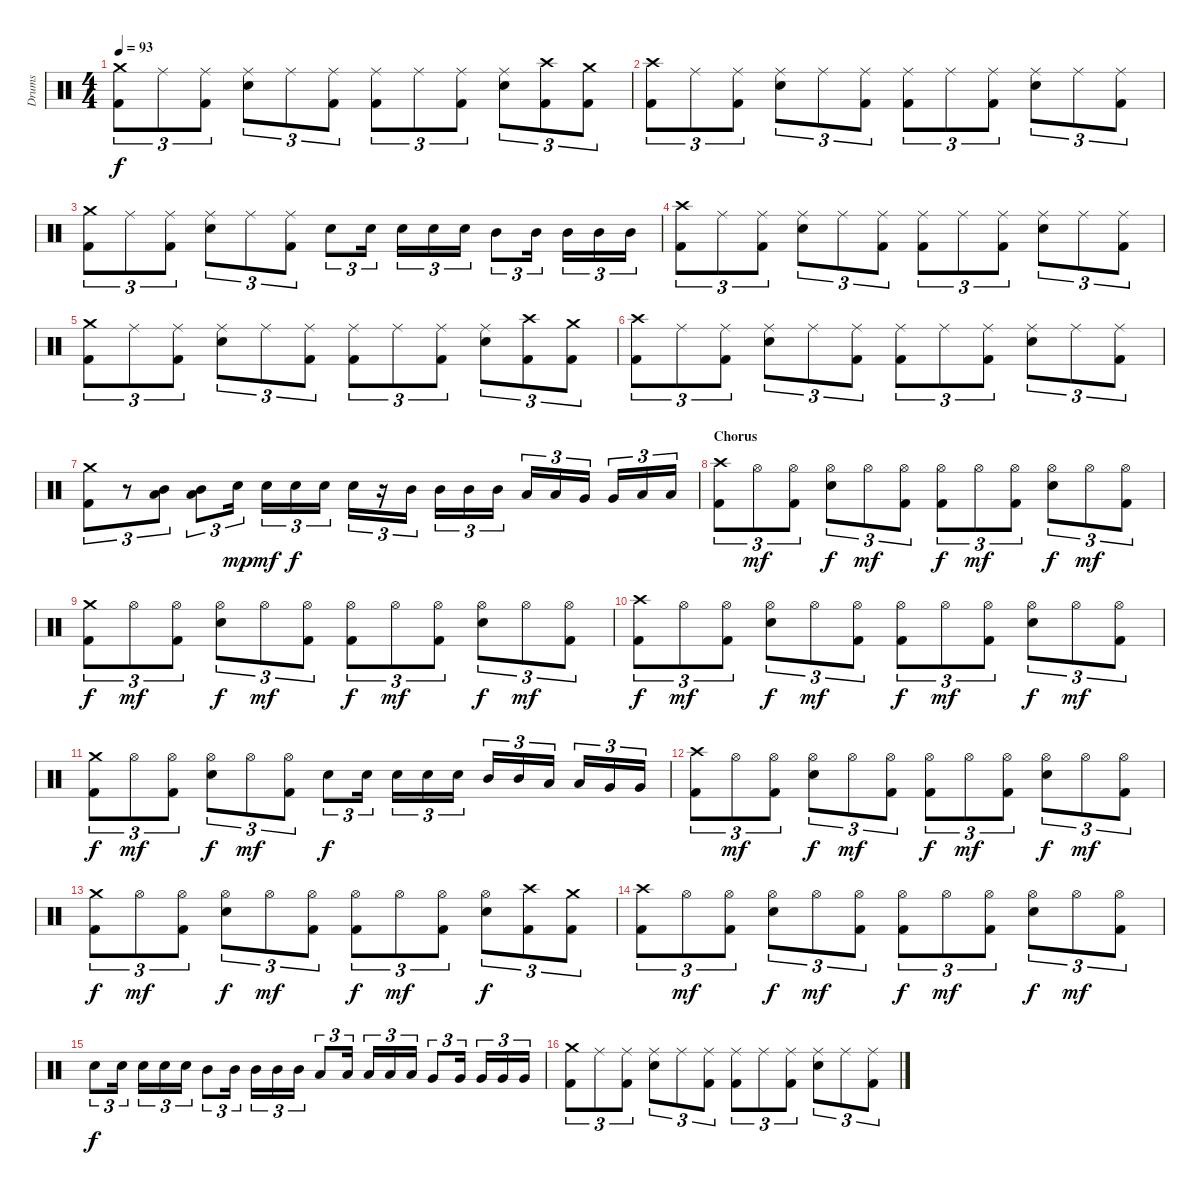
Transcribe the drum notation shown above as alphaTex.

\track ("Drums" "Drums") {instrument percussion}
\staff {score}
\articulation defaults
\ts (4 4)
\tempo 93
\clef neutral
\ks c
("Crash medium (hit)" "Kick (hit) 2").8{tu (3 2) dy f} "Ride (middle)".8{tu (3 2)} ("Ride (middle)" "Kick (hit) 2").8{tu (3 2)} ("Ride (middle)" "Snare (hit) 2").8{tu (3 2)} "Ride (middle)".8{tu (3 2)} ("Ride (middle)" "Kick (hit) 2").8{tu (3 2)} ("Ride (middle)" "Kick (hit) 2").8{tu (3 2)} "Ride (middle)".8{tu (3 2)} ("Ride (middle)" "Kick (hit) 2").8{tu (3 2)} ("Ride (middle)" "Snare (hit) 2").8{tu (3 2)} ("Crash high (hit)" "Kick (hit) 2").8{tu (3 2)} ("Crash medium (hit)" "Kick (hit) 2").8{tu (3 2)} |
("Crash high (hit)" "Kick (hit) 2").8{tu (3 2)} "Ride (middle)".8{tu (3 2)} ("Ride (middle)" "Kick (hit) 2").8{tu (3 2)} ("Ride (middle)" "Snare (hit) 2").8{tu (3 2)} "Ride (middle)".8{tu (3 2)} ("Ride (middle)" "Kick (hit) 2").8{tu (3 2)} ("Ride (middle)" "Kick (hit) 2").8{tu (3 2)} "Ride (middle)".8{tu (3 2)} ("Ride (middle)" "Kick (hit) 2").8{tu (3 2)} ("Ride (middle)" "Snare (hit) 2").8{tu (3 2)} "Ride (middle)".8{tu (3 2)} ("Ride (middle)" "Kick (hit) 2").8{tu (3 2)} |
("Crash medium (hit)" "Kick (hit) 2").8{tu (3 2)} "Ride (middle)".8{tu (3 2)} ("Ride (middle)" "Kick (hit) 2").8{tu (3 2)} ("Ride (middle)" "Snare (hit) 2").8{tu (3 2)} "Ride (middle)".8{tu (3 2)} ("Ride (middle)" "Kick (hit) 2").8{tu (3 2)} "Snare (hit) 2".8{tu (3 2)} "Snare (hit) 2".16{tu (3 2)} "Snare (hit) 2".16{tu (3 2)} "Snare (hit) 2".16{tu (3 2)} "Snare (hit) 2".16{tu (3 2)} "Mid Tom (hit)".8{tu (3 2)} "Mid Tom (hit)".16{tu (3 2)} "Mid Tom (hit)".16{tu (3 2)} "Mid Tom (hit)".16{tu (3 2)} "Mid Tom (hit)".16{tu (3 2)} |
("Crash high (hit)" "Kick (hit) 2").8{tu (3 2)} "Ride (middle)".8{tu (3 2)} ("Ride (middle)" "Kick (hit) 2").8{tu (3 2)} ("Ride (middle)" "Snare (hit) 2").8{tu (3 2)} "Ride (middle)".8{tu (3 2)} ("Ride (middle)" "Kick (hit) 2").8{tu (3 2)} ("Ride (middle)" "Kick (hit) 2").8{tu (3 2)} "Ride (middle)".8{tu (3 2)} ("Ride (middle)" "Kick (hit) 2").8{tu (3 2)} ("Ride (middle)" "Snare (hit) 2").8{tu (3 2)} "Ride (middle)".8{tu (3 2)} ("Ride (middle)" "Kick (hit) 2").8{tu (3 2)} |
("Crash medium (hit)" "Kick (hit) 2").8{tu (3 2)} "Ride (middle)".8{tu (3 2)} ("Ride (middle)" "Kick (hit) 2").8{tu (3 2)} ("Ride (middle)" "Snare (hit) 2").8{tu (3 2)} "Ride (middle)".8{tu (3 2)} ("Ride (middle)" "Kick (hit) 2").8{tu (3 2)} ("Ride (middle)" "Kick (hit) 2").8{tu (3 2)} "Ride (middle)".8{tu (3 2)} ("Ride (middle)" "Kick (hit) 2").8{tu (3 2)} ("Ride (middle)" "Snare (hit) 2").8{tu (3 2)} ("Crash high (hit)" "Kick (hit) 2").8{tu (3 2)} ("Crash medium (hit)" "Kick (hit) 2").8{tu (3 2)} |
("Crash high (hit)" "Kick (hit) 2").8{tu (3 2)} "Ride (middle)".8{tu (3 2)} ("Ride (middle)" "Kick (hit) 2").8{tu (3 2)} ("Ride (middle)" "Snare (hit) 2").8{tu (3 2)} "Ride (middle)".8{tu (3 2)} ("Ride (middle)" "Kick (hit) 2").8{tu (3 2)} ("Ride (middle)" "Kick (hit) 2").8{tu (3 2)} "Ride (middle)".8{tu (3 2)} ("Ride (middle)" "Kick (hit) 2").8{tu (3 2)} ("Ride (middle)" "Snare (hit) 2").8{tu (3 2)} "Ride (middle)".8{tu (3 2)} ("Ride (middle)" "Kick (hit) 2").8{tu (3 2)} |
("Crash medium (hit)" "Kick (hit) 2").8{tu (3 2)} r.8{tu (3 2)} ("Mid Tom (hit)" "Low Tom (hit)").8{tu (3 2)} ("Mid Tom (hit)" "Low Tom (hit)").8{tu (3 2)} "Snare (hit) 2".16{tu (3 2) dy mp} "Snare (hit) 2".16{tu (3 2) dy mf} "Snare (hit) 2".16{tu (3 2) dy f} "Snare (hit) 2".16{tu (3 2)} "Snare (hit) 2".16{tu (3 2)} r.16{tu (3 2)} "Mid Tom (hit)".16{tu (3 2)} "Mid Tom (hit)".16{tu (3 2)} "Mid Tom (hit)".16{tu (3 2)} "Mid Tom (hit)".16{tu (3 2)} "Low Tom (hit)".16{tu (3 2)} "Low Tom (hit)".16{tu (3 2)} "Very Low Tom (hit)".16{tu (3 2)} "Very Low Tom (hit)".16{tu (3 2)} "Low Floor Tom (hit)".16{tu (3 2)} "Low Floor Tom (hit)".16{tu (3 2)} |
\section ("" "Chorus")
("Crash high (hit)" "Kick (hit) 2").8{tu (3 2)} "Hi-Hat (open)".8{tu (3 2) dy mf} ("Hi-Hat (open)" "Kick (hit) 2").8{tu (3 2)} ("Hi-Hat (open)" "Snare (hit) 2").8{tu (3 2) dy f} "Hi-Hat (open)".8{tu (3 2) dy mf} ("Hi-Hat (open)" "Kick (hit) 2").8{tu (3 2)} ("Hi-Hat (open)" "Kick (hit) 2").8{tu (3 2) dy f} "Hi-Hat (open)".8{tu (3 2) dy mf} ("Hi-Hat (open)" "Kick (hit) 2").8{tu (3 2)} ("Hi-Hat (open)" "Snare (hit) 2").8{tu (3 2) dy f} "Hi-Hat (open)".8{tu (3 2) dy mf} ("Hi-Hat (open)" "Kick (hit) 2").8{tu (3 2)} |
("Crash medium (hit)" "Kick (hit) 2").8{tu (3 2) dy f} "Hi-Hat (open)".8{tu (3 2) dy mf} ("Hi-Hat (open)" "Kick (hit) 2").8{tu (3 2)} ("Hi-Hat (open)" "Snare (hit) 2").8{tu (3 2) dy f} "Hi-Hat (open)".8{tu (3 2) dy mf} ("Hi-Hat (open)" "Kick (hit) 2").8{tu (3 2)} ("Hi-Hat (open)" "Kick (hit) 2").8{tu (3 2) dy f} "Hi-Hat (open)".8{tu (3 2) dy mf} ("Hi-Hat (open)" "Kick (hit) 2").8{tu (3 2)} ("Hi-Hat (open)" "Snare (hit) 2").8{tu (3 2) dy f} "Hi-Hat (open)".8{tu (3 2) dy mf} ("Hi-Hat (open)" "Kick (hit) 2").8{tu (3 2)} |
("Crash high (hit)" "Kick (hit) 2").8{tu (3 2) dy f} "Hi-Hat (open)".8{tu (3 2) dy mf} ("Hi-Hat (open)" "Kick (hit) 2").8{tu (3 2)} ("Hi-Hat (open)" "Snare (hit) 2").8{tu (3 2) dy f} "Hi-Hat (open)".8{tu (3 2) dy mf} ("Hi-Hat (open)" "Kick (hit) 2").8{tu (3 2)} ("Hi-Hat (open)" "Kick (hit) 2").8{tu (3 2) dy f} "Hi-Hat (open)".8{tu (3 2) dy mf} ("Hi-Hat (open)" "Kick (hit) 2").8{tu (3 2)} ("Hi-Hat (open)" "Snare (hit) 2").8{tu (3 2) dy f} "Hi-Hat (open)".8{tu (3 2) dy mf} ("Hi-Hat (open)" "Kick (hit) 2").8{tu (3 2)} |
("Crash medium (hit)" "Kick (hit) 2").8{tu (3 2) dy f} "Hi-Hat (open)".8{tu (3 2) dy mf} ("Hi-Hat (open)" "Kick (hit) 2").8{tu (3 2)} ("Hi-Hat (open)" "Snare (hit) 2").8{tu (3 2) dy f} "Hi-Hat (open)".8{tu (3 2) dy mf} ("Hi-Hat (open)" "Kick (hit) 2").8{tu (3 2)} "Snare (hit) 2".8{tu (3 2) dy f} "Snare (hit) 2".16{tu (3 2)} "Snare (hit) 2".16{tu (3 2)} "Snare (hit) 2".16{tu (3 2)} "Snare (hit) 2".16{tu (3 2)} "Mid Tom (hit)".16{tu (3 2)} "Mid Tom (hit)".16{tu (3 2)} "Low Tom (hit)".16{tu (3 2)} "Low Tom (hit)".16{tu (3 2)} "Very Low Tom (hit)".16{tu (3 2)} "Very Low Tom (hit)".16{tu (3 2)} |
("Crash high (hit)" "Kick (hit) 2").8{tu (3 2)} "Hi-Hat (open)".8{tu (3 2) dy mf} ("Hi-Hat (open)" "Kick (hit) 2").8{tu (3 2)} ("Hi-Hat (open)" "Snare (hit) 2").8{tu (3 2) dy f} "Hi-Hat (open)".8{tu (3 2) dy mf} ("Hi-Hat (open)" "Kick (hit) 2").8{tu (3 2)} ("Hi-Hat (open)" "Kick (hit) 2").8{tu (3 2) dy f} "Hi-Hat (open)".8{tu (3 2) dy mf} ("Hi-Hat (open)" "Kick (hit) 2").8{tu (3 2)} ("Hi-Hat (open)" "Snare (hit) 2").8{tu (3 2) dy f} "Hi-Hat (open)".8{tu (3 2) dy mf} ("Hi-Hat (open)" "Kick (hit) 2").8{tu (3 2)} |
("Crash medium (hit)" "Kick (hit) 2").8{tu (3 2) dy f} "Hi-Hat (open)".8{tu (3 2) dy mf} ("Hi-Hat (open)" "Kick (hit) 2").8{tu (3 2)} ("Hi-Hat (open)" "Snare (hit) 2").8{tu (3 2) dy f} "Hi-Hat (open)".8{tu (3 2) dy mf} ("Hi-Hat (open)" "Kick (hit) 2").8{tu (3 2)} ("Hi-Hat (open)" "Kick (hit) 2").8{tu (3 2) dy f} "Hi-Hat (open)".8{tu (3 2) dy mf} ("Hi-Hat (open)" "Kick (hit) 2").8{tu (3 2)} ("Hi-Hat (open)" "Snare (hit) 2").8{tu (3 2) dy f} ("Crash high (hit)" "Kick (hit) 2").8{tu (3 2)} ("Crash medium (hit)" "Kick (hit) 2").8{tu (3 2)} |
("Crash high (hit)" "Kick (hit) 2").8{tu (3 2)} "Hi-Hat (open)".8{tu (3 2) dy mf} ("Hi-Hat (open)" "Kick (hit) 2").8{tu (3 2)} ("Hi-Hat (open)" "Snare (hit) 2").8{tu (3 2) dy f} "Hi-Hat (open)".8{tu (3 2) dy mf} ("Hi-Hat (open)" "Kick (hit) 2").8{tu (3 2)} ("Hi-Hat (open)" "Kick (hit) 2").8{tu (3 2) dy f} "Hi-Hat (open)".8{tu (3 2) dy mf} ("Hi-Hat (open)" "Kick (hit) 2").8{tu (3 2)} ("Hi-Hat (open)" "Snare (hit) 2").8{tu (3 2) dy f} "Hi-Hat (open)".8{tu (3 2) dy mf} ("Hi-Hat (open)" "Kick (hit) 2").8{tu (3 2)} |
"Snare (hit) 2".8{tu (3 2) dy f} "Snare (hit) 2".16{tu (3 2)} "Snare (hit) 2".16{tu (3 2)} "Snare (hit) 2".16{tu (3 2)} "Snare (hit) 2".16{tu (3 2)} "Mid Tom (hit)".8{tu (3 2)} "Mid Tom (hit)".16{tu (3 2)} "Mid Tom (hit)".16{tu (3 2)} "Mid Tom (hit)".16{tu (3 2)} "Mid Tom (hit)".16{tu (3 2)} "Low Tom (hit)".8{tu (3 2)} "Low Tom (hit)".16{tu (3 2)} "Low Tom (hit)".16{tu (3 2)} "Low Tom (hit)".16{tu (3 2)} "Low Tom (hit)".16{tu (3 2)} "Very Low Tom (hit)".8{tu (3 2)} "Very Low Tom (hit)".16{tu (3 2)} "Very Low Tom (hit)".16{tu (3 2)} "Very Low Tom (hit)".16{tu (3 2)} "Very Low Tom (hit)".16{tu (3 2)} |
("Crash medium (hit)" "Kick (hit) 2").8{tu (3 2)} "Ride (middle)".8{tu (3 2)} ("Ride (middle)" "Kick (hit) 2").8{tu (3 2)} ("Ride (middle)" "Snare (hit) 2").8{tu (3 2)} "Ride (middle)".8{tu (3 2)} ("Ride (middle)" "Kick (hit) 2").8{tu (3 2)} ("Ride (middle)" "Kick (hit) 2").8{tu (3 2)} "Ride (middle)".8{tu (3 2)} ("Ride (middle)" "Kick (hit) 2").8{tu (3 2)} ("Ride (middle)" "Snare (hit) 2").8{tu (3 2)} "Ride (middle)".8{tu (3 2)} ("Ride (middle)" "Kick (hit) 2").8{tu (3 2)}
